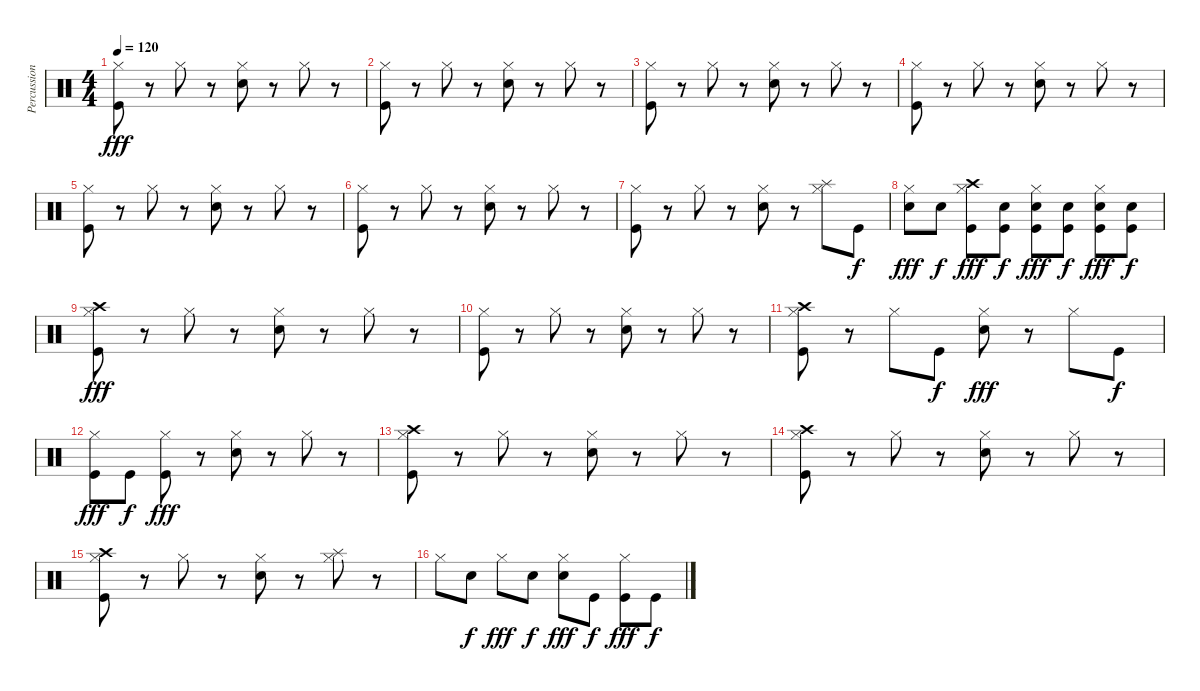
\track ("Percussion" "Percussion") {instrument percussion}
\staff {score}
\articulation defaults
\ts (4 4)
\tempo 120
\clef neutral
\ks c
("Hi-Hat (closed)" "Kick (hit)").8{dy fff} r.8 "Hi-Hat (closed)".8 r.8 ("Hi-Hat (closed)" "Snare (hit) 2").8 r.8 "Hi-Hat (closed)".8 r.8 |
("Hi-Hat (closed)" "Kick (hit)").8 r.8 "Hi-Hat (closed)".8 r.8 ("Hi-Hat (closed)" "Snare (hit) 2").8 r.8 "Hi-Hat (closed)".8 r.8 |
("Hi-Hat (closed)" "Kick (hit)").8 r.8 "Hi-Hat (closed)".8 r.8 ("Hi-Hat (closed)" "Snare (hit) 2").8 r.8 "Hi-Hat (closed)".8 r.8 |
("Hi-Hat (closed)" "Kick (hit)").8 r.8 "Hi-Hat (closed)".8 r.8 ("Hi-Hat (closed)" "Snare (hit) 2").8 r.8 "Hi-Hat (closed)".8 r.8 |
("Hi-Hat (closed)" "Kick (hit)").8 r.8 "Hi-Hat (closed)".8 r.8 ("Hi-Hat (closed)" "Snare (hit) 2").8 r.8 "Hi-Hat (closed)".8 r.8 |
("Hi-Hat (closed)" "Kick (hit)").8 r.8 "Hi-Hat (closed)".8 r.8 ("Hi-Hat (closed)" "Snare (hit) 2").8 r.8 "Hi-Hat (closed)".8 r.8 |
("Hi-Hat (closed)" "Kick (hit)").8 r.8 "Hi-Hat (closed)".8 r.8 ("Hi-Hat (closed)" "Snare (hit) 2").8 r.8 ("Hi-Hat (closed)" "Splash (hit)").8 "Kick (hit)".8{dy f} |
("Hi-Hat (closed)" "Snare (hit) 2").8{dy fff} "Snare (hit) 2".8{dy f} ("Hi-Hat (closed)" "Crash high (hit)" "Kick (hit)").8{dy fff} ("Snare (hit) 2" "Kick (hit)").8{dy f} ("Hi-Hat (closed)" "Snare (hit) 2" "Kick (hit)").8{dy fff} ("Snare (hit) 2" "Kick (hit)").8{dy f} ("Hi-Hat (closed)" "Snare (hit) 2" "Kick (hit)").8{dy fff} ("Snare (hit) 2" "Kick (hit)").8{dy f} |
("Hi-Hat (closed)" "Crash high (hit)" "Kick (hit)").8{dy fff} r.8 "Hi-Hat (closed)".8 r.8 ("Hi-Hat (closed)" "Snare (hit) 2").8 r.8 "Hi-Hat (closed)".8 r.8 |
("Hi-Hat (closed)" "Kick (hit)").8 r.8 "Hi-Hat (closed)".8 r.8 ("Hi-Hat (closed)" "Snare (hit) 2").8 r.8 "Hi-Hat (closed)".8 r.8 |
("Hi-Hat (closed)" "Crash high (hit)" "Kick (hit)").8 r.8 "Hi-Hat (closed)".8 "Kick (hit)".8{dy f} ("Hi-Hat (closed)" "Snare (hit) 2").8{dy fff} r.8 "Hi-Hat (closed)".8 "Kick (hit)".8{dy f} |
("Hi-Hat (closed)" "Kick (hit)").8{dy fff} "Kick (hit)".8{dy f} ("Hi-Hat (closed)" "Kick (hit)").8{dy fff} r.8 ("Hi-Hat (closed)" "Snare (hit) 2").8 r.8 "Hi-Hat (closed)".8 r.8 |
("Hi-Hat (closed)" "Crash high (hit)" "Kick (hit)").8 r.8 "Hi-Hat (closed)".8 r.8 ("Hi-Hat (closed)" "Snare (hit) 2").8 r.8 "Hi-Hat (closed)".8 r.8 |
("Hi-Hat (closed)" "Crash high (hit)" "Kick (hit)").8 r.8 "Hi-Hat (closed)".8 r.8 ("Hi-Hat (closed)" "Snare (hit) 2").8 r.8 "Hi-Hat (closed)".8 r.8 |
("Hi-Hat (closed)" "Crash high (hit)" "Kick (hit)").8 r.8 "Hi-Hat (closed)".8 r.8 ("Hi-Hat (closed)" "Snare (hit) 2").8 r.8 ("Hi-Hat (closed)" "Splash (hit)").8 r.8 |
"Hi-Hat (closed)".8 "Snare (hit) 2".8{dy f} "Hi-Hat (closed)".8{dy fff} "Snare (hit) 2".8{dy f} ("Hi-Hat (closed)" "Snare (hit) 2").8{dy fff} "Kick (hit)".8{dy f} ("Hi-Hat (closed)" "Kick (hit)").8{dy fff} "Kick (hit)".8{dy f}
